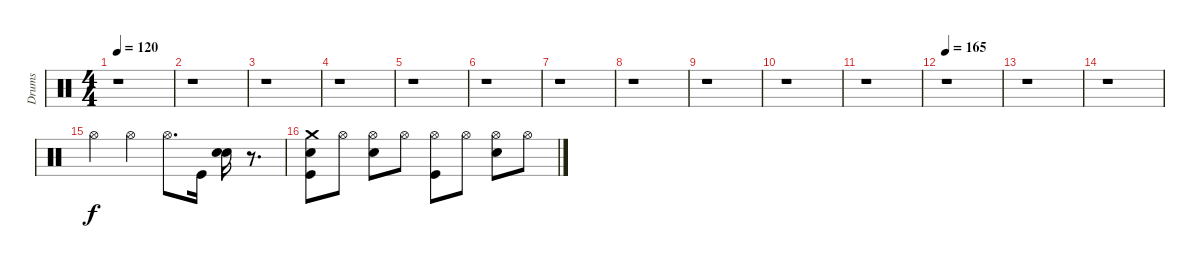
\track ("Drums" "Drums") {instrument percussion}
\staff {score}
\articulation defaults
\ts (4 4)
\tempo 120
\clef neutral
\ks c
r.1{dy f} |
r.1 |
r.1 |
r.1 |
r.1 |
r.1 |
r.1 |
r.1 |
r.1 |
r.1 |
r.1 |
\tempo 165
r.1 |
r.1 |
r.1 |
"Hi-Hat (open)".4{volume 13 balance 8} "Hi-Hat (open)".4 "Hi-Hat (open)".8{d} "Kick (hit)".16 ("Electric Snare (hit)" "Electric Snare (hit)").16 r.8{d} |
("Electric Snare (hit)" "Kick (hit)" "Crash medium (hit)").8{volume 13 balance 8} "Hi-Hat (open)".8 ("Hi-Hat (open)" "Electric Snare (hit)").8 "Hi-Hat (open)".8 ("Hi-Hat (open)" "Kick (hit)").8 "Hi-Hat (open)".8 ("Electric Snare (hit)" "Hi-Hat (open)").8 "Hi-Hat (open)".8
